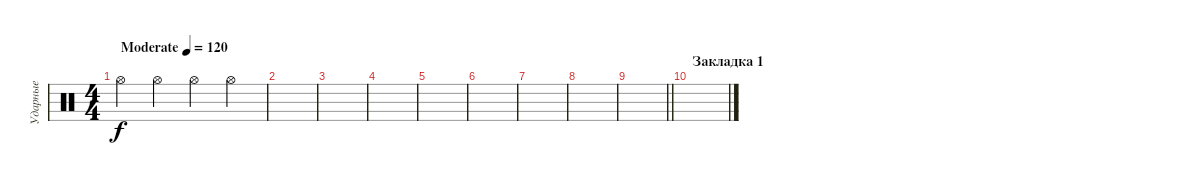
\track ("Ударные" "Ударные") {instrument percussion}
\staff {score}
\articulation defaults
\ts (4 4)
\tempo (120 "Moderate")
\clef neutral
\ks c "Hi-Hat (open)".4{dy f} "Hi-Hat (open)".4 "Hi-Hat (open)".4 "Hi-Hat (open)".4
|
|
|
|
|
|
|
|
\barLineRight lightlight
|
\section ("" "Закладка 1")
